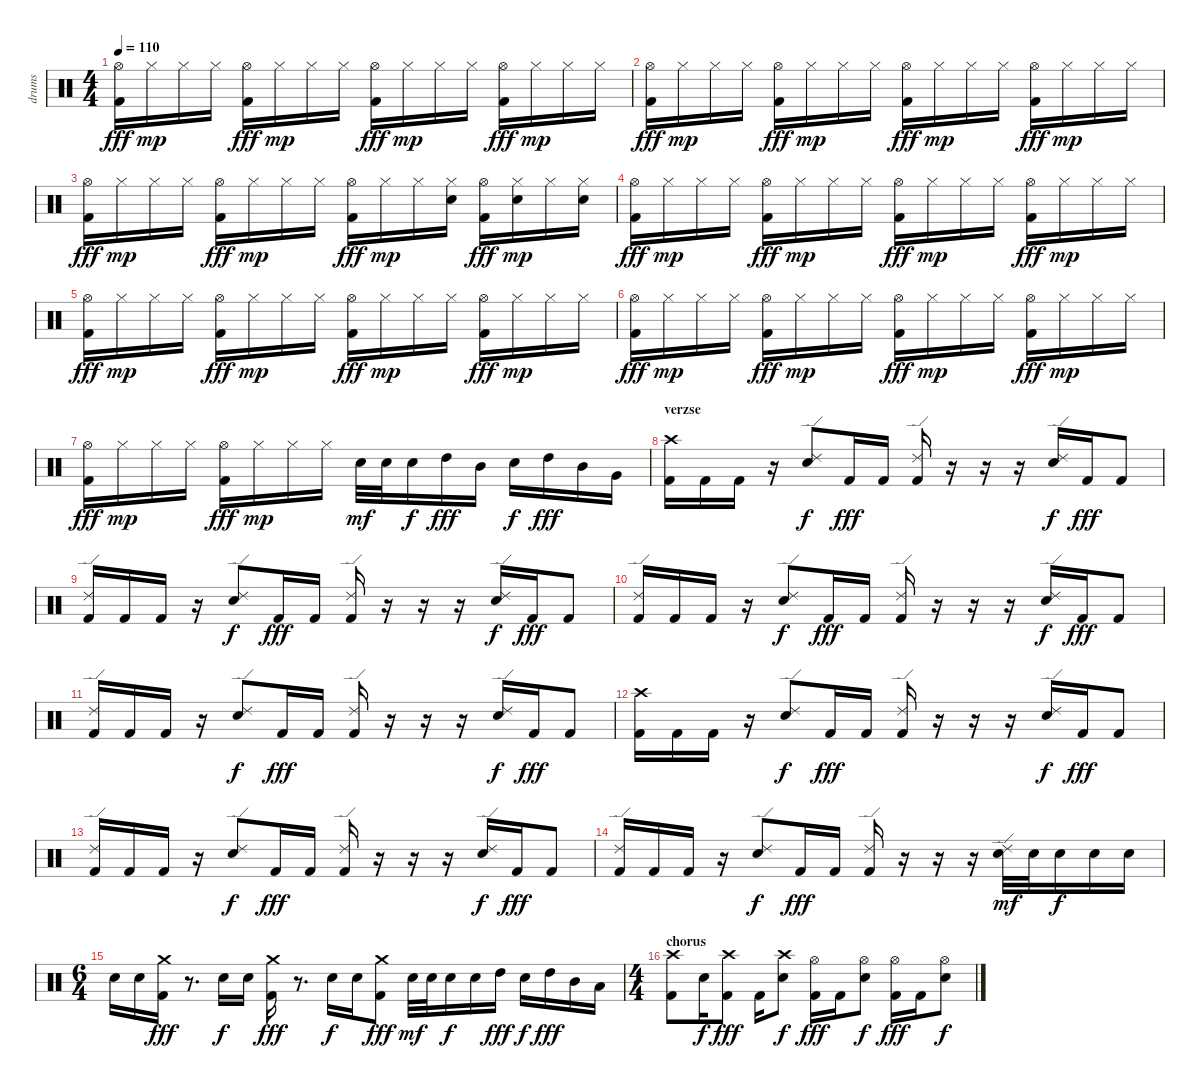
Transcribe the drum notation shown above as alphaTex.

\track ("drums" "drums") {instrument percussion}
\staff {score}
\articulation defaults
\ts (4 4)
\tempo 110
\clef neutral
\ks c
("Hi-Hat (open)" "Kick (hit) 2").16{dy fff} "Hi-Hat (closed)".16{dy mp} "Hi-Hat (closed)".16 "Hi-Hat (closed)".16 ("Hi-Hat (open)" "Kick (hit) 2").16{dy fff} "Hi-Hat (closed)".16{dy mp} "Hi-Hat (closed)".16 "Hi-Hat (closed)".16 ("Hi-Hat (open)" "Kick (hit) 2").16{dy fff} "Hi-Hat (closed)".16{dy mp} "Hi-Hat (closed)".16 "Hi-Hat (closed)".16 ("Hi-Hat (open)" "Kick (hit) 2").16{dy fff} "Hi-Hat (closed)".16{dy mp} "Hi-Hat (closed)".16 "Hi-Hat (closed)".16 |
("Hi-Hat (open)" "Kick (hit) 2").16{dy fff} "Hi-Hat (closed)".16{dy mp} "Hi-Hat (closed)".16 "Hi-Hat (closed)".16 ("Hi-Hat (open)" "Kick (hit) 2").16{dy fff} "Hi-Hat (closed)".16{dy mp} "Hi-Hat (closed)".16 "Hi-Hat (closed)".16 ("Hi-Hat (open)" "Kick (hit) 2").16{dy fff} "Hi-Hat (closed)".16{dy mp} "Hi-Hat (closed)".16 "Hi-Hat (closed)".16 ("Hi-Hat (open)" "Kick (hit) 2").16{dy fff} "Hi-Hat (closed)".16{dy mp} "Hi-Hat (closed)".16 "Hi-Hat (closed)".16 |
("Hi-Hat (open)" "Kick (hit) 2").16{dy fff} "Hi-Hat (closed)".16{dy mp} "Hi-Hat (closed)".16 "Hi-Hat (closed)".16 ("Hi-Hat (open)" "Kick (hit) 2").16{dy fff} "Hi-Hat (closed)".16{dy mp} "Hi-Hat (closed)".16 "Hi-Hat (closed)".16 ("Hi-Hat (open)" "Kick (hit) 2").16{dy fff} "Hi-Hat (closed)".16{dy mp} "Hi-Hat (closed)".16 ("Hi-Hat (closed)" "Snare (hit) 2").16 ("Hi-Hat (open)" "Kick (hit) 2").16{dy fff} ("Hi-Hat (closed)" "Snare (hit) 2").16{dy mp} "Hi-Hat (closed)".16 ("Hi-Hat (closed)" "Snare (hit) 2").16 |
("Hi-Hat (open)" "Kick (hit) 2").16{dy fff} "Hi-Hat (closed)".16{dy mp} "Hi-Hat (closed)".16 "Hi-Hat (closed)".16 ("Hi-Hat (open)" "Kick (hit) 2").16{dy fff} "Hi-Hat (closed)".16{dy mp} "Hi-Hat (closed)".16 "Hi-Hat (closed)".16 ("Hi-Hat (open)" "Kick (hit) 2").16{dy fff} "Hi-Hat (closed)".16{dy mp} "Hi-Hat (closed)".16 "Hi-Hat (closed)".16 ("Hi-Hat (open)" "Kick (hit) 2").16{dy fff} "Hi-Hat (closed)".16{dy mp} "Hi-Hat (closed)".16 "Hi-Hat (closed)".16 |
("Hi-Hat (open)" "Kick (hit) 2").16{dy fff} "Hi-Hat (closed)".16{dy mp} "Hi-Hat (closed)".16 "Hi-Hat (closed)".16 ("Hi-Hat (open)" "Kick (hit) 2").16{dy fff} "Hi-Hat (closed)".16{dy mp} "Hi-Hat (closed)".16 "Hi-Hat (closed)".16 ("Hi-Hat (open)" "Kick (hit) 2").16{dy fff} "Hi-Hat (closed)".16{dy mp} "Hi-Hat (closed)".16 "Hi-Hat (closed)".16 ("Hi-Hat (open)" "Kick (hit) 2").16{dy fff} "Hi-Hat (closed)".16{dy mp} "Hi-Hat (closed)".16 "Hi-Hat (closed)".16 |
("Hi-Hat (open)" "Kick (hit) 2").16{dy fff} "Hi-Hat (closed)".16{dy mp} "Hi-Hat (closed)".16 "Hi-Hat (closed)".16 ("Hi-Hat (open)" "Kick (hit) 2").16{dy fff} "Hi-Hat (closed)".16{dy mp} "Hi-Hat (closed)".16 "Hi-Hat (closed)".16 ("Hi-Hat (open)" "Kick (hit) 2").16{dy fff} "Hi-Hat (closed)".16{dy mp} "Hi-Hat (closed)".16 "Hi-Hat (closed)".16 ("Hi-Hat (open)" "Kick (hit) 2").16{dy fff} "Hi-Hat (closed)".16{dy mp} "Hi-Hat (closed)".16 "Hi-Hat (closed)".16 |
("Hi-Hat (open)" "Kick (hit) 2").16{dy fff} "Hi-Hat (closed)".16{dy mp} "Hi-Hat (closed)".16 "Hi-Hat (closed)".16 ("Hi-Hat (open)" "Kick (hit) 2").16{dy fff} "Hi-Hat (closed)".16{dy mp} "Hi-Hat (closed)".16 "Hi-Hat (closed)".16 "Snare (hit) 2".32{dy mf} "Snare (hit) 2".32 "Snare (hit) 2".16{dy f} "High Tom (hit)".16{dy fff} "Mid Tom (hit)".16 "Snare (hit) 2".16{dy f} "High Tom (hit)".16{dy fff} "Mid Tom (hit)".16 "Very Low Tom (hit)".16 |
\section ("" "verzse")
("Crash high (hit)" "Kick (hit) 2").16 "Kick (hit) 2".16 "Kick (hit) 2".16 r.16 ("Ride (edge) 2" "Snare (hit) 2").8{dy f} "Kick (hit) 2".16{dy fff} "Kick (hit) 2".16 ("Ride (edge) 2" "Kick (hit) 2").16 r.16 r.16 r.16 ("Ride (edge) 2" "Snare (hit) 2").16{dy f} "Kick (hit) 2".16{dy fff} "Kick (hit) 2".8 |
("Ride (edge) 2" "Kick (hit) 2").16 "Kick (hit) 2".16 "Kick (hit) 2".16 r.16 ("Ride (edge) 2" "Snare (hit) 2").8{dy f} "Kick (hit) 2".16{dy fff} "Kick (hit) 2".16 ("Ride (edge) 2" "Kick (hit) 2").16 r.16 r.16 r.16 ("Ride (edge) 2" "Snare (hit) 2").16{dy f} "Kick (hit) 2".16{dy fff} "Kick (hit) 2".8 |
("Ride (edge) 2" "Kick (hit) 2").16 "Kick (hit) 2".16 "Kick (hit) 2".16 r.16 ("Ride (edge) 2" "Snare (hit) 2").8{dy f} "Kick (hit) 2".16{dy fff} "Kick (hit) 2".16 ("Ride (edge) 2" "Kick (hit) 2").16 r.16 r.16 r.16 ("Ride (edge) 2" "Snare (hit) 2").16{dy f} "Kick (hit) 2".16{dy fff} "Kick (hit) 2".8 |
("Ride (edge) 2" "Kick (hit) 2").16 "Kick (hit) 2".16 "Kick (hit) 2".16 r.16 ("Ride (edge) 2" "Snare (hit) 2").8{dy f} "Kick (hit) 2".16{dy fff} "Kick (hit) 2".16 ("Ride (edge) 2" "Kick (hit) 2").16 r.16 r.16 r.16 ("Ride (edge) 2" "Snare (hit) 2").16{dy f} "Kick (hit) 2".16{dy fff} "Kick (hit) 2".8 |
("Crash high (hit)" "Kick (hit) 2").16 "Kick (hit) 2".16 "Kick (hit) 2".16 r.16 ("Ride (edge) 2" "Snare (hit) 2").8{dy f} "Kick (hit) 2".16{dy fff} "Kick (hit) 2".16 ("Ride (edge) 2" "Kick (hit) 2").16 r.16 r.16 r.16 ("Ride (edge) 2" "Snare (hit) 2").16{dy f} "Kick (hit) 2".16{dy fff} "Kick (hit) 2".8 |
("Ride (edge) 2" "Kick (hit) 2").16 "Kick (hit) 2".16 "Kick (hit) 2".16 r.16 ("Ride (edge) 2" "Snare (hit) 2").8{dy f} "Kick (hit) 2".16{dy fff} "Kick (hit) 2".16 ("Ride (edge) 2" "Kick (hit) 2").16 r.16 r.16 r.16 ("Ride (edge) 2" "Snare (hit) 2").16{dy f} "Kick (hit) 2".16{dy fff} "Kick (hit) 2".8 |
("Ride (edge) 2" "Kick (hit) 2").16 "Kick (hit) 2".16 "Kick (hit) 2".16 r.16 ("Ride (edge) 2" "Snare (hit) 2").8{dy f} "Kick (hit) 2".16{dy fff} "Kick (hit) 2".16 ("Ride (edge) 2" "Kick (hit) 2").16 r.16 r.16 r.16 ("Ride (edge) 2" "Snare (hit) 2").32{dy mf} "Snare (hit) 2".32 "Snare (hit) 2".16{dy f} "Snare (hit) 2".16 "Snare (hit) 2".16 |
\ts (6 4)
"Snare (hit) 2".16 "Snare (hit) 2".16 ("Crash medium (hit)" "Kick (hit) 2").16{dy fff} r.8{d} "Snare (hit) 2".16{dy f} "Snare (hit) 2".16 ("Crash medium (hit)" "Kick (hit) 2").16{dy fff} r.8{d} "Snare (hit) 2".16{dy f} "Snare (hit) 2".16 ("Crash medium (hit)" "Kick (hit) 2").8{dy fff} "Snare (hit) 2".32{dy mf} "Snare (hit) 2".32 "Snare (hit) 2".16{dy f} "Snare (hit) 2".16 "High Tom (hit)".16{dy fff} "Snare (hit) 2".16{dy f} "High Tom (hit)".16{dy fff} "Mid Tom (hit)".16 "Low Tom (hit)".16 |
\ts (4 4)
\section ("" "chorus")
("Crash high (hit)" "Kick (hit) 2").8 "Snare (hit) 2".16{dy f} ("Crash high (hit)" "Kick (hit) 2").8{dy fff} "Kick (hit) 2".16 ("Crash high (hit)" "Snare (hit) 2").8{dy f} ("Hi-Hat (open)" "Kick (hit) 2").16{dy fff} "Kick (hit) 2".16 ("Hi-Hat (open)" "Snare (hit) 2").8{dy f} ("Hi-Hat (open)" "Kick (hit) 2").16{dy fff} "Kick (hit) 2".16 ("Hi-Hat (open)" "Snare (hit) 2").8{dy f}
